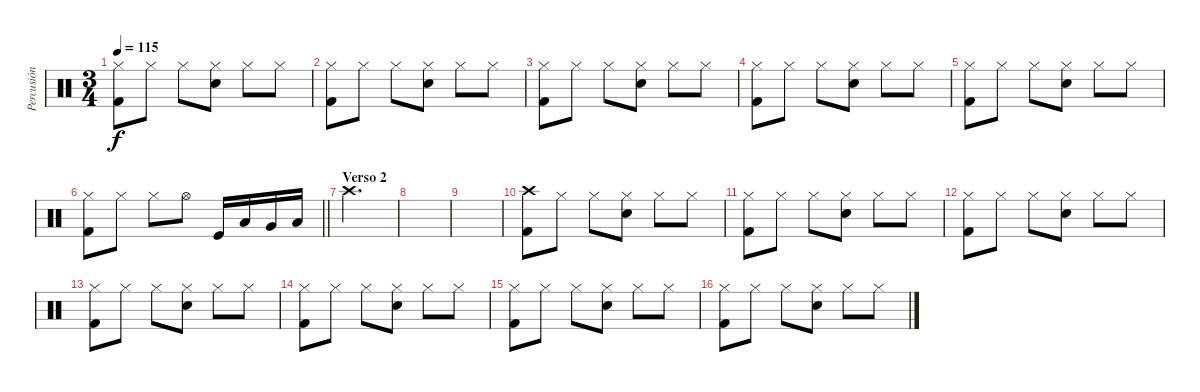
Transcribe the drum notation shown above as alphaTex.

\track ("Percusión" "Percusión") {instrument percussion}
\staff {score}
\articulation defaults
\ts (3 4)
\tempo 115
\clef neutral
\ks c
("Hi-Hat (closed)" "Kick (hit) 2").8{dy f} "Hi-Hat (closed)".8 "Hi-Hat (closed)".8 ("Hi-Hat (closed)" "Electric Snare (hit)").8 "Hi-Hat (closed)".8 "Hi-Hat (closed)".8 |
("Hi-Hat (closed)" "Kick (hit) 2").8 "Hi-Hat (closed)".8 "Hi-Hat (closed)".8 ("Hi-Hat (closed)" "Electric Snare (hit)").8 "Hi-Hat (closed)".8 "Hi-Hat (closed)".8 |
("Hi-Hat (closed)" "Kick (hit) 2").8 "Hi-Hat (closed)".8 "Hi-Hat (closed)".8 ("Hi-Hat (closed)" "Electric Snare (hit)").8 "Hi-Hat (closed)".8 "Hi-Hat (closed)".8 |
("Hi-Hat (closed)" "Kick (hit) 2").8 "Hi-Hat (closed)".8 "Hi-Hat (closed)".8 ("Hi-Hat (closed)" "Electric Snare (hit)").8 "Hi-Hat (closed)".8 "Hi-Hat (closed)".8 |
("Hi-Hat (closed)" "Kick (hit) 2").8 "Hi-Hat (closed)".8 "Hi-Hat (closed)".8 ("Hi-Hat (closed)" "Electric Snare (hit)").8 "Hi-Hat (closed)".8 "Hi-Hat (closed)".8 |
\barLineRight lightlight
("Hi-Hat (closed)" "Kick (hit) 2").8 "Hi-Hat (closed)".8 "Hi-Hat (closed)".8 "Hi-Hat (open)".8 "Kick (hit)".16 "Low Floor Tom (hit)".16 "Very Low Tom (hit)".16 "Low Tom (hit)".16 |
\section ("" "Verso 2")
"Crash high (hit)".2{d} |
|
|
("Crash high (hit)" "Kick (hit) 2").8 "Hi-Hat (closed)".8 "Hi-Hat (closed)".8 ("Hi-Hat (closed)" "Electric Snare (hit)").8 "Hi-Hat (closed)".8 "Hi-Hat (closed)".8 |
("Hi-Hat (closed)" "Kick (hit) 2").8 "Hi-Hat (closed)".8 "Hi-Hat (closed)".8 ("Hi-Hat (closed)" "Electric Snare (hit)").8 "Hi-Hat (closed)".8 "Hi-Hat (closed)".8 |
("Hi-Hat (closed)" "Kick (hit) 2").8 "Hi-Hat (closed)".8 "Hi-Hat (closed)".8 ("Hi-Hat (closed)" "Electric Snare (hit)").8 "Hi-Hat (closed)".8 "Hi-Hat (closed)".8 |
("Hi-Hat (closed)" "Kick (hit) 2").8 "Hi-Hat (closed)".8 "Hi-Hat (closed)".8 ("Hi-Hat (closed)" "Electric Snare (hit)").8 "Hi-Hat (closed)".8 "Hi-Hat (closed)".8 |
("Hi-Hat (closed)" "Kick (hit) 2").8 "Hi-Hat (closed)".8 "Hi-Hat (closed)".8 ("Hi-Hat (closed)" "Electric Snare (hit)").8 "Hi-Hat (closed)".8 "Hi-Hat (closed)".8 |
("Hi-Hat (closed)" "Kick (hit) 2").8 "Hi-Hat (closed)".8 "Hi-Hat (closed)".8 ("Hi-Hat (closed)" "Electric Snare (hit)").8 "Hi-Hat (closed)".8 "Hi-Hat (closed)".8 |
("Hi-Hat (closed)" "Kick (hit) 2").8 "Hi-Hat (closed)".8 "Hi-Hat (closed)".8 ("Hi-Hat (closed)" "Electric Snare (hit)").8 "Hi-Hat (closed)".8 "Hi-Hat (closed)".8
